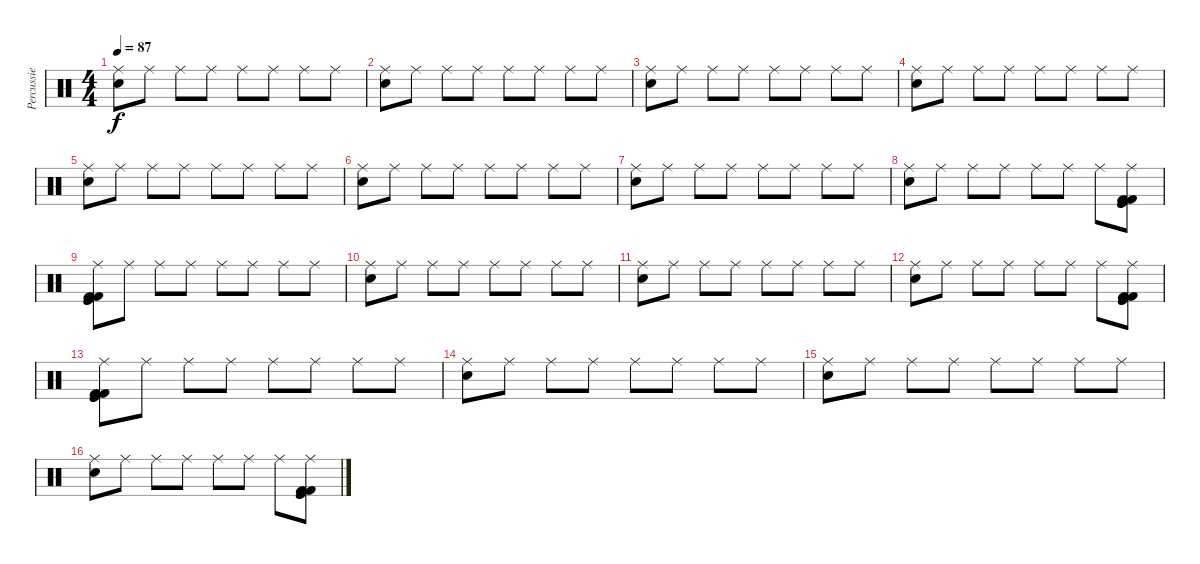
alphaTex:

\track ("Percussie" "Percussie") {instrument percussion}
\staff {score}
\articulation defaults
\ts (4 4)
\tempo 87
\clef neutral
\ks c
("Ride (middle)" "Snare (hit) 2").8{dy f} "Ride (middle)".8 "Ride (middle)".8 "Ride (middle)".8 "Ride (middle)".8 "Ride (middle)".8 "Ride (middle)".8 "Ride (middle)".8 |
("Ride (middle)" "Snare (hit) 2").8 "Ride (middle)".8 "Ride (middle)".8 "Ride (middle)".8 "Ride (middle)".8 "Ride (middle)".8 "Ride (middle)".8 "Ride (middle)".8 |
("Ride (middle)" "Snare (hit) 2").8 "Ride (middle)".8 "Ride (middle)".8 "Ride (middle)".8 "Ride (middle)".8 "Ride (middle)".8 "Ride (middle)".8 "Ride (middle)".8 |
("Ride (middle)" "Snare (hit) 2").8 "Ride (middle)".8 "Ride (middle)".8 "Ride (middle)".8 "Ride (middle)".8 "Ride (middle)".8 "Ride (middle)".8 "Ride (middle)".8 |
("Ride (middle)" "Snare (hit) 2").8 "Ride (middle)".8 "Ride (middle)".8 "Ride (middle)".8 "Ride (middle)".8 "Ride (middle)".8 "Ride (middle)".8 "Ride (middle)".8 |
("Ride (middle)" "Snare (hit) 2").8 "Ride (middle)".8 "Ride (middle)".8 "Ride (middle)".8 "Ride (middle)".8 "Ride (middle)".8 "Ride (middle)".8 "Ride (middle)".8 |
("Ride (middle)" "Snare (hit) 2").8 "Ride (middle)".8 "Ride (middle)".8 "Ride (middle)".8 "Ride (middle)".8 "Ride (middle)".8 "Ride (middle)".8 "Ride (middle)".8 |
("Ride (middle)" "Snare (hit) 2").8 "Ride (middle)".8 "Ride (middle)".8 "Ride (middle)".8 "Ride (middle)".8 "Ride (middle)".8 "Ride (middle)".8 ("Ride (middle)" "Kick (hit) 2" "Kick (hit)" "Kick (hit) 2" "Kick (hit)").8 |
("Ride (middle)" "Kick (hit) 2" "Kick (hit) 2" "Kick (hit)" "Kick (hit)").8 "Ride (middle)".8 "Ride (middle)".8 "Ride (middle)".8 "Ride (middle)".8 "Ride (middle)".8 "Ride (middle)".8 "Ride (middle)".8 |
("Ride (middle)" "Snare (hit) 2").8 "Ride (middle)".8 "Ride (middle)".8 "Ride (middle)".8 "Ride (middle)".8 "Ride (middle)".8 "Ride (middle)".8 "Ride (middle)".8 |
("Ride (middle)" "Snare (hit) 2").8 "Ride (middle)".8 "Ride (middle)".8 "Ride (middle)".8 "Ride (middle)".8 "Ride (middle)".8 "Ride (middle)".8 "Ride (middle)".8 |
("Ride (middle)" "Snare (hit) 2").8 "Ride (middle)".8 "Ride (middle)".8 "Ride (middle)".8 "Ride (middle)".8 "Ride (middle)".8 "Ride (middle)".8 ("Ride (middle)" "Kick (hit) 2" "Kick (hit) 2" "Kick (hit)" "Kick (hit)").8 |
("Ride (middle)" "Kick (hit) 2" "Kick (hit) 2" "Kick (hit)" "Kick (hit)").8 "Ride (middle)".8 "Ride (middle)".8 "Ride (middle)".8 "Ride (middle)".8 "Ride (middle)".8 "Ride (middle)".8 "Ride (middle)".8 |
("Ride (middle)" "Snare (hit) 2").8 "Ride (middle)".8 "Ride (middle)".8 "Ride (middle)".8 "Ride (middle)".8 "Ride (middle)".8 "Ride (middle)".8 "Ride (middle)".8 |
("Ride (middle)" "Snare (hit) 2").8 "Ride (middle)".8 "Ride (middle)".8 "Ride (middle)".8 "Ride (middle)".8 "Ride (middle)".8 "Ride (middle)".8 "Ride (middle)".8 |
("Ride (middle)" "Snare (hit) 2").8 "Ride (middle)".8 "Ride (middle)".8 "Ride (middle)".8 "Ride (middle)".8 "Ride (middle)".8 "Ride (middle)".8 ("Ride (middle)" "Kick (hit) 2" "Kick (hit) 2" "Kick (hit)" "Kick (hit)").8
